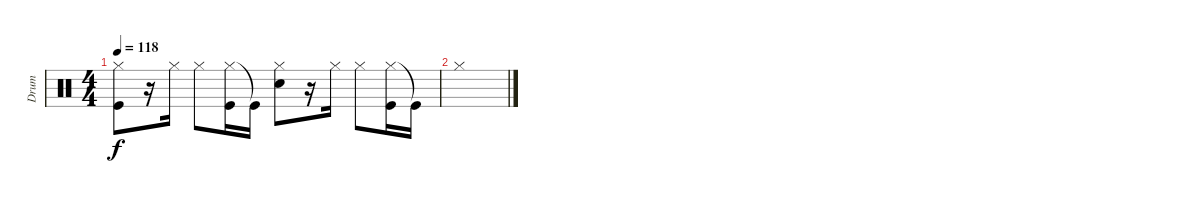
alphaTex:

\track ("Drum" "Drum") {instrument percussion}
\staff {score}
\articulation defaults
\ts (4 4)
\tempo 118
\clef neutral
\ks c
("Kick (hit)" "Hi-Hat (closed)").8{dy f} r.16 "Hi-Hat (closed)".16 "Hi-Hat (closed)".8 ("Hi-Hat (closed)" "Kick (hit)").16 "Kick (hit)"{t}.16 ("Hi-Hat (closed)" "Hand Clap (hit)").8 r.16 "Hi-Hat (closed)".16 "Hi-Hat (closed)".8 ("Hi-Hat (closed)" "Kick (hit)").16 "Kick (hit)"{t}.16 |
"Hi-Hat (closed)".1
